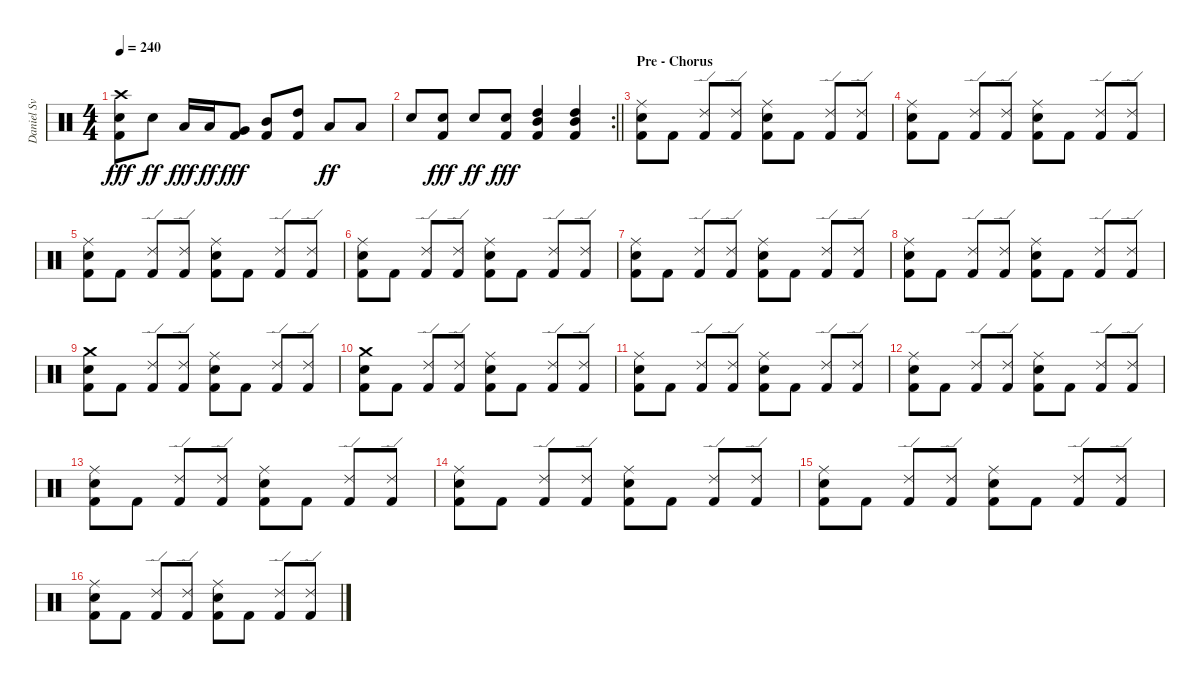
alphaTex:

\track (" Daniel Svensson" " Daniel Sv") {instrument percussion}
\staff {score}
\articulation defaults
\ts (4 4)
\tempo 240
\clef neutral
\ks c
("Crash high (hit)" "Electric Snare (hit)" "Kick (hit) 2").8{dy fff} "Electric Snare (hit)".8{dy ff} "Low Floor Tom (hit)".16{dy fff} "Low Floor Tom (hit)".16{dy ff} ("Very Low Tom (hit)" "Kick (hit) 2").8{dy fff} ("Mid Tom (hit)" "Kick (hit) 2").8 ("High Tom (hit)" "Kick (hit) 2").8 "Low Tom (hit)".8{dy ff} "Low Tom (hit)".8 |
\rc 2
\barLineRight lightlight "Electric Snare (hit)".8
("Electric Snare (hit)" "Kick (hit) 2").8{dy fff} "Electric Snare (hit)".8{dy ff} ("Electric Snare (hit)" "Kick (hit) 2").8{dy fff} ("High Tom (hit)" "Mid Tom (hit)" "Kick (hit) 2").4 ("High Tom (hit)" "Mid Tom (hit)" "Kick (hit) 2").4 |
\section ("" "Pre - Chorus")
("Ride (middle)" "Electric Snare (hit)" "Kick (hit) 2").8 "Kick (hit) 2".8 ("Ride (edge) 2" "Kick (hit) 2").8 ("Ride (edge) 2" "Kick (hit) 2").8 ("Ride (middle)" "Electric Snare (hit)" "Kick (hit) 2").8 "Kick (hit) 2".8 ("Ride (edge) 2" "Kick (hit) 2").8 ("Ride (edge) 2" "Kick (hit) 2").8 |
("Ride (middle)" "Electric Snare (hit)" "Kick (hit) 2").8 "Kick (hit) 2".8 ("Ride (edge) 2" "Kick (hit) 2").8 ("Ride (edge) 2" "Kick (hit) 2").8 ("Ride (middle)" "Electric Snare (hit)" "Kick (hit) 2").8 "Kick (hit) 2".8 ("Ride (edge) 2" "Kick (hit) 2").8 ("Ride (edge) 2" "Kick (hit) 2").8 |
("Ride (middle)" "Electric Snare (hit)" "Kick (hit) 2").8 "Kick (hit) 2".8 ("Ride (edge) 2" "Kick (hit) 2").8 ("Ride (edge) 2" "Kick (hit) 2").8 ("Ride (middle)" "Electric Snare (hit)" "Kick (hit) 2").8 "Kick (hit) 2".8 ("Ride (edge) 2" "Kick (hit) 2").8 ("Ride (edge) 2" "Kick (hit) 2").8 |
("Ride (middle)" "Electric Snare (hit)" "Kick (hit) 2").8 "Kick (hit) 2".8 ("Ride (edge) 2" "Kick (hit) 2").8 ("Ride (edge) 2" "Kick (hit) 2").8 ("Ride (middle)" "Electric Snare (hit)" "Kick (hit) 2").8 "Kick (hit) 2".8 ("Ride (edge) 2" "Kick (hit) 2").8 ("Ride (edge) 2" "Kick (hit) 2").8 |
("Ride (middle)" "Electric Snare (hit)" "Kick (hit) 2").8 "Kick (hit) 2".8 ("Ride (edge) 2" "Kick (hit) 2").8 ("Ride (edge) 2" "Kick (hit) 2").8 ("Ride (middle)" "Electric Snare (hit)" "Kick (hit) 2").8 "Kick (hit) 2".8 ("Ride (edge) 2" "Kick (hit) 2").8 ("Ride (edge) 2" "Kick (hit) 2").8 |
("Ride (middle)" "Electric Snare (hit)" "Kick (hit) 2").8 "Kick (hit) 2".8 ("Ride (edge) 2" "Kick (hit) 2").8 ("Ride (edge) 2" "Kick (hit) 2").8 ("Ride (middle)" "Electric Snare (hit)" "Kick (hit) 2").8 "Kick (hit) 2".8 ("Ride (edge) 2" "Kick (hit) 2").8 ("Ride (edge) 2" "Kick (hit) 2").8 |
("Crash medium (hit)" "Electric Snare (hit)" "Kick (hit) 2").8 "Kick (hit) 2".8 ("Ride (edge) 2" "Kick (hit) 2").8 ("Ride (edge) 2" "Kick (hit) 2").8 ("Ride (middle)" "Electric Snare (hit)" "Kick (hit) 2").8 "Kick (hit) 2".8 ("Ride (edge) 2" "Kick (hit) 2").8 ("Ride (edge) 2" "Kick (hit) 2").8 |
("Crash medium (hit)" "Electric Snare (hit)" "Kick (hit) 2").8 "Kick (hit) 2".8 ("Ride (edge) 2" "Kick (hit) 2").8 ("Ride (edge) 2" "Kick (hit) 2").8 ("Ride (middle)" "Electric Snare (hit)" "Kick (hit) 2").8 "Kick (hit) 2".8 ("Ride (edge) 2" "Kick (hit) 2").8 ("Ride (edge) 2" "Kick (hit) 2").8 |
("Ride (middle)" "Electric Snare (hit)" "Kick (hit) 2").8 "Kick (hit) 2".8 ("Ride (edge) 2" "Kick (hit) 2").8 ("Ride (edge) 2" "Kick (hit) 2").8 ("Ride (middle)" "Electric Snare (hit)" "Kick (hit) 2").8 "Kick (hit) 2".8 ("Ride (edge) 2" "Kick (hit) 2").8 ("Ride (edge) 2" "Kick (hit) 2").8 |
("Ride (middle)" "Electric Snare (hit)" "Kick (hit) 2").8 "Kick (hit) 2".8 ("Ride (edge) 2" "Kick (hit) 2").8 ("Ride (edge) 2" "Kick (hit) 2").8 ("Ride (middle)" "Electric Snare (hit)" "Kick (hit) 2").8 "Kick (hit) 2".8 ("Ride (edge) 2" "Kick (hit) 2").8 ("Ride (edge) 2" "Kick (hit) 2").8 |
("Ride (middle)" "Electric Snare (hit)" "Kick (hit) 2").8 "Kick (hit) 2".8 ("Ride (edge) 2" "Kick (hit) 2").8 ("Ride (edge) 2" "Kick (hit) 2").8 ("Ride (middle)" "Electric Snare (hit)" "Kick (hit) 2").8 "Kick (hit) 2".8 ("Ride (edge) 2" "Kick (hit) 2").8 ("Ride (edge) 2" "Kick (hit) 2").8 |
("Ride (middle)" "Electric Snare (hit)" "Kick (hit) 2").8 "Kick (hit) 2".8 ("Ride (edge) 2" "Kick (hit) 2").8 ("Ride (edge) 2" "Kick (hit) 2").8 ("Ride (middle)" "Electric Snare (hit)" "Kick (hit) 2").8 "Kick (hit) 2".8 ("Ride (edge) 2" "Kick (hit) 2").8 ("Ride (edge) 2" "Kick (hit) 2").8 |
("Ride (middle)" "Electric Snare (hit)" "Kick (hit) 2").8 "Kick (hit) 2".8 ("Ride (edge) 2" "Kick (hit) 2").8 ("Ride (edge) 2" "Kick (hit) 2").8 ("Ride (middle)" "Electric Snare (hit)" "Kick (hit) 2").8 "Kick (hit) 2".8 ("Ride (edge) 2" "Kick (hit) 2").8 ("Ride (edge) 2" "Kick (hit) 2").8 |
("Ride (middle)" "Electric Snare (hit)" "Kick (hit) 2").8 "Kick (hit) 2".8 ("Ride (edge) 2" "Kick (hit) 2").8 ("Ride (edge) 2" "Kick (hit) 2").8 ("Ride (middle)" "Electric Snare (hit)" "Kick (hit) 2").8 "Kick (hit) 2".8 ("Ride (edge) 2" "Kick (hit) 2").8 ("Ride (edge) 2" "Kick (hit) 2").8
